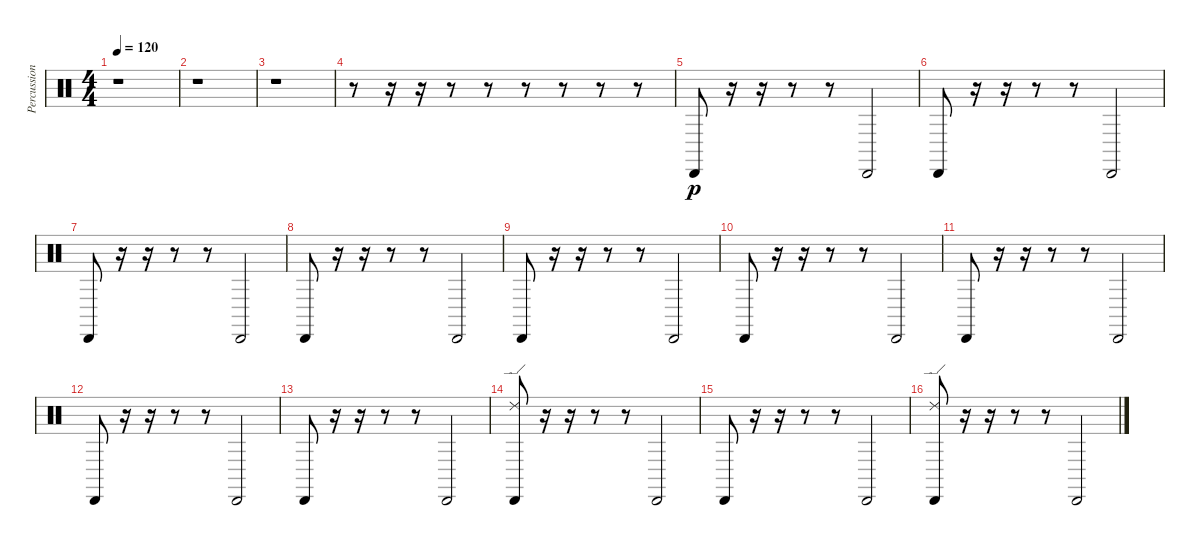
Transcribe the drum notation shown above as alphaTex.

\track ("Percussions" "Percussion") {instrument percussion}
\staff {score}
\articulation defaults
\ts (4 4)
\tempo 120
\clef neutral
\ks c
r.1{dy pp} |
r.1 |
r.1 |
r.8 r.16 r.16 r.8 r.8 r.8 r.8 r.8 r.8 |
"Cabasa (hit)".8{dy p} r.16 r.16 r.8 r.8 "Cabasa (hit)".2 |
"Cabasa (hit)".8 r.16 r.16 r.8 r.8 "Cabasa (hit)".2 |
"Cabasa (hit)".8 r.16 r.16 r.8 r.8 "Cabasa (hit)".2 |
"Cabasa (hit)".8 r.16 r.16 r.8 r.8 "Cabasa (hit)".2 |
"Cabasa (hit)".8 r.16 r.16 r.8 r.8 "Cabasa (hit)".2 |
"Cabasa (hit)".8 r.16 r.16 r.8 r.8 "Cabasa (hit)".2 |
"Cabasa (hit)".8 r.16 r.16 r.8 r.8 "Cabasa (hit)".2 |
"Cabasa (hit)".8 r.16 r.16 r.8 r.8 "Cabasa (hit)".2 |
"Cabasa (hit)".8 r.16 r.16 r.8 r.8 "Cabasa (hit)".2 |
("Cabasa (hit)" "Ride (edge) 2").8 r.16 r.16 r.8 r.8 "Cabasa (hit)".2 |
"Cabasa (hit)".8 r.16 r.16 r.8 r.8 "Cabasa (hit)".2 |
("Cabasa (hit)" "Ride (edge) 2").8 r.16 r.16 r.8 r.8 "Cabasa (hit)".2
